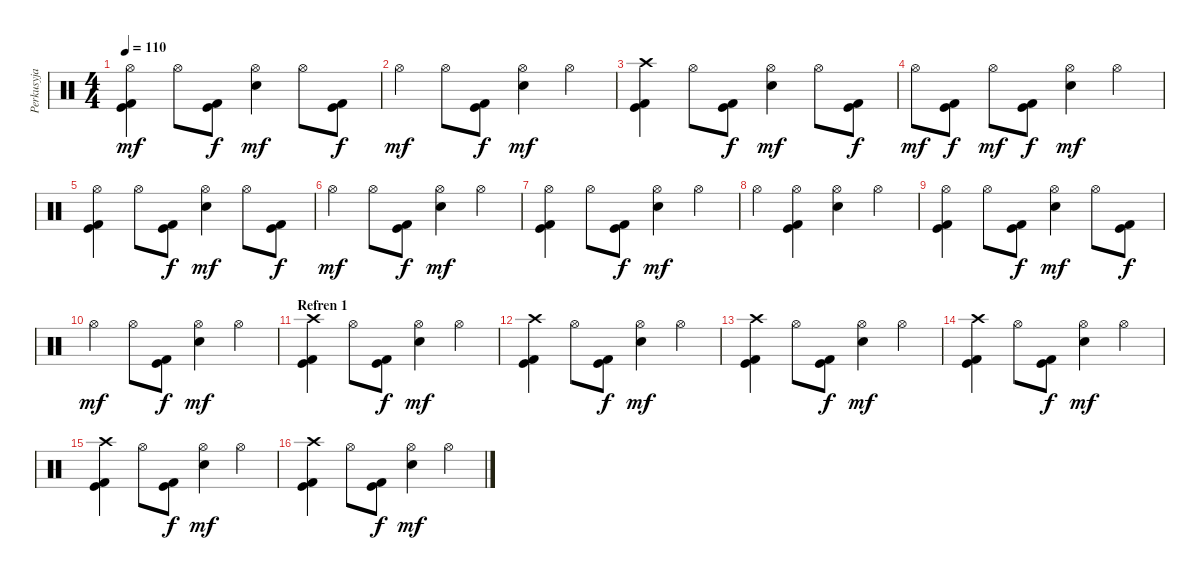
\track ("Perkusyja" "Perkusyja") {instrument percussion}
\staff {score}
\articulation defaults
\ts (4 4)
\tempo 110
\clef neutral
\ks c
("Hi-Hat (open)" "Kick (hit) 2" "Kick (hit)").4{dy mf} "Hi-Hat (open)".8 ("Kick (hit) 2" "Kick (hit)").8{dy f} ("Hi-Hat (open)" "Snare (hit) 2").4{dy mf} "Hi-Hat (open)".8 ("Kick (hit) 2" "Kick (hit)").8{dy f} |
"Hi-Hat (open)".4{dy mf} "Hi-Hat (open)".8 ("Kick (hit) 2" "Kick (hit)").8{dy f} ("Hi-Hat (open)" "Snare (hit) 2").4{dy mf} "Hi-Hat (open)".4 |
("Crash high (hit)" "Kick (hit) 2" "Kick (hit)").4 "Hi-Hat (open)".8 ("Kick (hit) 2" "Kick (hit)").8{dy f} ("Hi-Hat (open)" "Snare (hit) 2").4{dy mf} "Hi-Hat (open)".8 ("Kick (hit) 2" "Kick (hit)").8{dy f} |
"Hi-Hat (open)".8{dy mf} ("Kick (hit) 2" "Kick (hit)").8{dy f} "Hi-Hat (open)".8{dy mf} ("Kick (hit) 2" "Kick (hit)").8{dy f} ("Hi-Hat (open)" "Snare (hit) 2").4{dy mf} "Hi-Hat (open)".4 |
("Hi-Hat (open)" "Kick (hit) 2" "Kick (hit)").4 "Hi-Hat (open)".8 ("Kick (hit) 2" "Kick (hit)").8{dy f} ("Hi-Hat (open)" "Snare (hit) 2").4{dy mf} "Hi-Hat (open)".8 ("Kick (hit) 2" "Kick (hit)").8{dy f} |
"Hi-Hat (open)".4{dy mf} "Hi-Hat (open)".8 ("Kick (hit) 2" "Kick (hit)").8{dy f} ("Hi-Hat (open)" "Snare (hit) 2").4{dy mf} "Hi-Hat (open)".4 |
("Hi-Hat (open)" "Kick (hit) 2" "Kick (hit)").4 "Hi-Hat (open)".8 ("Kick (hit) 2" "Kick (hit)").8{dy f} ("Hi-Hat (open)" "Snare (hit) 2").4{dy mf} "Hi-Hat (open)".4 |
"Hi-Hat (open)".4 ("Hi-Hat (open)" "Kick (hit) 2" "Kick (hit)").4 ("Hi-Hat (open)" "Snare (hit) 2").4 "Hi-Hat (open)".4 |
("Hi-Hat (open)" "Kick (hit) 2" "Kick (hit)").4 "Hi-Hat (open)".8 ("Kick (hit) 2" "Kick (hit)").8{dy f} ("Hi-Hat (open)" "Snare (hit) 2").4{dy mf} "Hi-Hat (open)".8 ("Kick (hit) 2" "Kick (hit)").8{dy f} |
"Hi-Hat (open)".4{dy mf} "Hi-Hat (open)".8 ("Kick (hit) 2" "Kick (hit)").8{dy f} ("Hi-Hat (open)" "Snare (hit) 2").4{dy mf} "Hi-Hat (open)".4 |
\section ("" "Refren 1")
("Crash high (hit)" "Kick (hit) 2" "Kick (hit)").4 "Hi-Hat (open)".8 ("Kick (hit) 2" "Kick (hit)").8{dy f} ("Hi-Hat (open)" "Snare (hit) 2").4{dy mf} "Hi-Hat (open)".4 |
("Crash high (hit)" "Kick (hit) 2" "Kick (hit)").4 "Hi-Hat (open)".8 ("Kick (hit) 2" "Kick (hit)").8{dy f} ("Hi-Hat (open)" "Snare (hit) 2").4{dy mf} "Hi-Hat (open)".4 |
("Crash high (hit)" "Kick (hit) 2" "Kick (hit)").4 "Hi-Hat (open)".8 ("Kick (hit) 2" "Kick (hit)").8{dy f} ("Hi-Hat (open)" "Snare (hit) 2").4{dy mf} "Hi-Hat (open)".4 |
("Crash high (hit)" "Kick (hit) 2" "Kick (hit)").4 "Hi-Hat (open)".8 ("Kick (hit) 2" "Kick (hit)").8{dy f} ("Hi-Hat (open)" "Snare (hit) 2").4{dy mf} "Hi-Hat (open)".4 |
("Crash high (hit)" "Kick (hit) 2" "Kick (hit)").4 "Hi-Hat (open)".8 ("Kick (hit) 2" "Kick (hit)").8{dy f} ("Hi-Hat (open)" "Snare (hit) 2").4{dy mf} "Hi-Hat (open)".4 |
("Crash high (hit)" "Kick (hit) 2" "Kick (hit)").4 "Hi-Hat (open)".8 ("Kick (hit) 2" "Kick (hit)").8{dy f} ("Hi-Hat (open)" "Snare (hit) 2").4{dy mf} "Hi-Hat (open)".4
